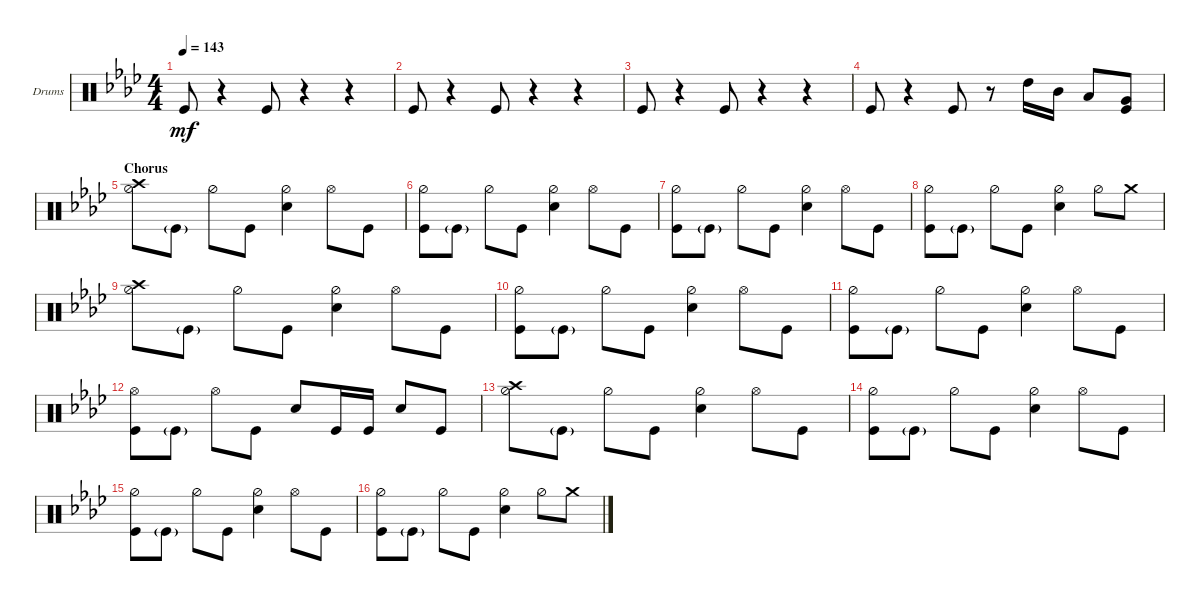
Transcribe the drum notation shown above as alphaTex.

\defaultSystemsLayout 4
\bracketExtendMode groupsimilarinstruments
\firstSystemTrackNameOrientation horizontal
\otherSystemsTrackNameOrientation horizontal
\track ("Drumkit" "Drums") {instrument percussion}
\staff {score}
\articulation defaults
\ts (4 4)
\tempo 143
\clef neutral
\ks fminor "Kick (hit)".8{dy mf}
r.4 "Kick (hit)".8 r.4 r.4 |
"Kick (hit)".8 r.4 "Kick (hit)".8 r.4 r.4 |
"Kick (hit)".8 r.4 "Kick (hit)".8 r.4 r.4 |
"Kick (hit)".8 r.4 "Kick (hit)".8 r.8 "High Tom (hit)".16 "Mid Tom (hit)".16 "Low Tom (hit)".8 ("Very Low Tom (hit)" "Kick (hit)").8 |
\section ("" "Chorus")
("Crash high (hit)" "Hi-Hat (half)").8 "Kick (hit)"{g}.8 "Hi-Hat (half)".8 "Kick (hit)".8 ("Snare (hit) 2" "Hi-Hat (half)").4 "Hi-Hat (open)".8 "Kick (hit)".8 |
("Kick (hit)" "Hi-Hat (half)").8 "Kick (hit)"{g}.8 "Hi-Hat (half)".8 "Kick (hit)".8 ("Snare (hit) 2" "Hi-Hat (half)").4 "Hi-Hat (open)".8 "Kick (hit)".8 |
("Kick (hit)" "Hi-Hat (half)").8 "Kick (hit)"{g}.8 "Hi-Hat (half)".8 "Kick (hit)".8 ("Snare (hit) 2" "Hi-Hat (half)").4 "Hi-Hat (open)".8 "Kick (hit)".8 |
("Kick (hit)" "Hi-Hat (half)").8 "Kick (hit)"{g}.8 "Hi-Hat (half)".8 "Kick (hit)".8 ("Snare (hit) 2" "Hi-Hat (half)").4 "Hi-Hat (half)".8 "Crash medium (hit)".8 |
("Crash high (hit)" "Hi-Hat (half)").8 "Kick (hit)"{g}.8 "Hi-Hat (half)".8 "Kick (hit)".8 ("Snare (hit) 2" "Hi-Hat (half)").4 "Hi-Hat (open)".8 "Kick (hit)".8 |
("Kick (hit)" "Hi-Hat (half)").8 "Kick (hit)"{g}.8 "Hi-Hat (half)".8 "Kick (hit)".8 ("Snare (hit) 2" "Hi-Hat (half)").4 "Hi-Hat (open)".8 "Kick (hit)".8 |
("Kick (hit)" "Hi-Hat (half)").8 "Kick (hit)"{g}.8 "Hi-Hat (half)".8 "Kick (hit)".8 ("Snare (hit) 2" "Hi-Hat (half)").4 "Hi-Hat (open)".8 "Kick (hit)".8 |
("Kick (hit)" "Hi-Hat (open)").8 "Kick (hit)"{g}.8 "Hi-Hat (open)".8 "Kick (hit)".8 "Snare (hit) 2".8 "Kick (hit)".16 "Kick (hit)".16 "Snare (hit) 2".8 "Kick (hit)".8 |
("Crash high (hit)" "Hi-Hat (half)").8 "Kick (hit)"{g}.8 "Hi-Hat (half)".8 "Kick (hit)".8 ("Snare (hit) 2" "Hi-Hat (half)").4 "Hi-Hat (open)".8 "Kick (hit)".8 |
("Kick (hit)" "Hi-Hat (half)").8 "Kick (hit)"{g}.8 "Hi-Hat (half)".8 "Kick (hit)".8 ("Snare (hit) 2" "Hi-Hat (half)").4 "Hi-Hat (open)".8 "Kick (hit)".8 |
("Kick (hit)" "Hi-Hat (half)").8 "Kick (hit)"{g}.8 "Hi-Hat (half)".8 "Kick (hit)".8 ("Snare (hit) 2" "Hi-Hat (half)").4 "Hi-Hat (open)".8 "Kick (hit)".8 |
("Kick (hit)" "Hi-Hat (half)").8 "Kick (hit)"{g}.8 "Hi-Hat (half)".8 "Kick (hit)".8 ("Snare (hit) 2" "Hi-Hat (half)").4 "Hi-Hat (half)".8 "Crash medium (hit)".8
